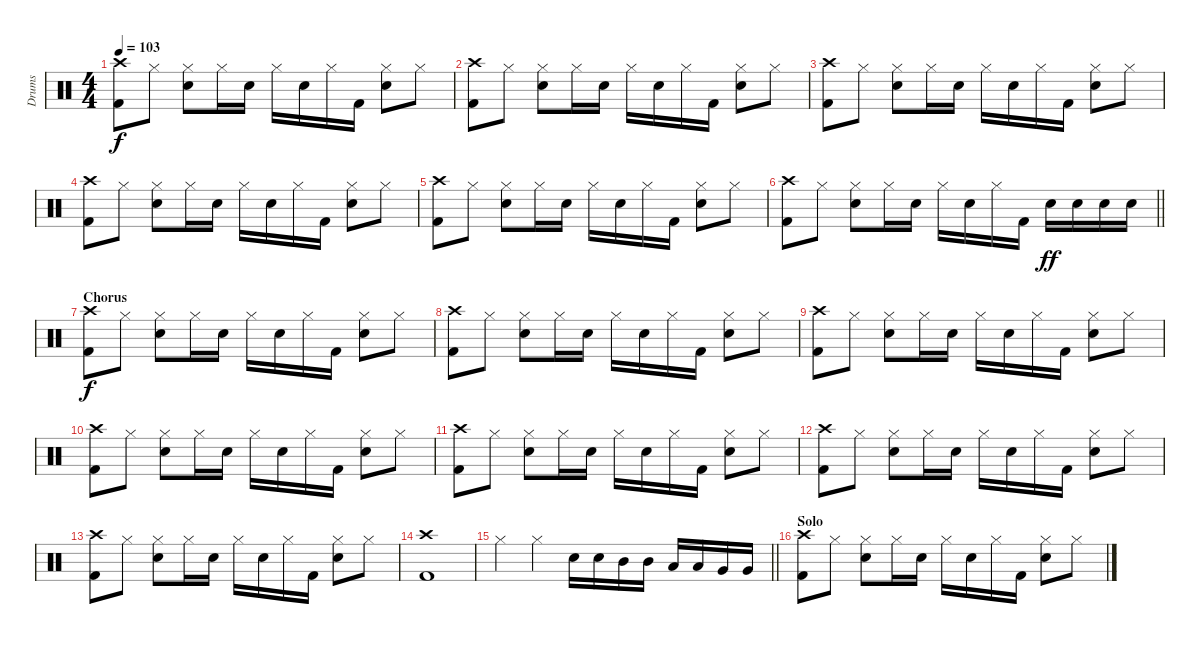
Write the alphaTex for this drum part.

\track ("Drums" "Drums") {instrument percussion}
\staff {score}
\articulation defaults
\ts (4 4)
\tempo 103
\clef neutral
\ks c
("Crash high (hit)" "Kick (hit) 2").8{dy f} "Hi-Hat (closed)".8 ("Hi-Hat (closed)" "Snare (hit) 2").8 "Hi-Hat (closed)".16 "Snare (hit) 2".16 "Hi-Hat (closed)".16 "Snare (hit) 2".16 "Hi-Hat (closed)".16 "Kick (hit) 2".16 ("Hi-Hat (closed)" "Snare (hit) 2").8 "Hi-Hat (closed)".8 |
("Crash high (hit)" "Kick (hit) 2").8 "Hi-Hat (closed)".8 ("Hi-Hat (closed)" "Snare (hit) 2").8 "Hi-Hat (closed)".16 "Snare (hit) 2".16 "Hi-Hat (closed)".16 "Snare (hit) 2".16 "Hi-Hat (closed)".16 "Kick (hit) 2".16 ("Hi-Hat (closed)" "Snare (hit) 2").8 "Hi-Hat (closed)".8 |
("Crash high (hit)" "Kick (hit) 2").8 "Hi-Hat (closed)".8 ("Hi-Hat (closed)" "Snare (hit) 2").8 "Hi-Hat (closed)".16 "Snare (hit) 2".16 "Hi-Hat (closed)".16 "Snare (hit) 2".16 "Hi-Hat (closed)".16 "Kick (hit) 2".16 ("Hi-Hat (closed)" "Snare (hit) 2").8 "Hi-Hat (closed)".8 |
("Crash high (hit)" "Kick (hit) 2").8 "Hi-Hat (closed)".8 ("Hi-Hat (closed)" "Snare (hit) 2").8 "Hi-Hat (closed)".16 "Snare (hit) 2".16 "Hi-Hat (closed)".16 "Snare (hit) 2".16 "Hi-Hat (closed)".16 "Kick (hit) 2".16 ("Hi-Hat (closed)" "Snare (hit) 2").8 "Hi-Hat (closed)".8 |
("Crash high (hit)" "Kick (hit) 2").8 "Hi-Hat (closed)".8 ("Hi-Hat (closed)" "Snare (hit) 2").8 "Hi-Hat (closed)".16 "Snare (hit) 2".16 "Hi-Hat (closed)".16 "Snare (hit) 2".16 "Hi-Hat (closed)".16 "Kick (hit) 2".16 ("Hi-Hat (closed)" "Snare (hit) 2").8 "Hi-Hat (closed)".8 |
\barLineRight lightlight
("Crash high (hit)" "Kick (hit) 2").8 "Hi-Hat (closed)".8 ("Hi-Hat (closed)" "Snare (hit) 2").8 "Hi-Hat (closed)".16 "Snare (hit) 2".16 "Hi-Hat (closed)".16 "Snare (hit) 2".16 "Hi-Hat (closed)".16 "Kick (hit) 2".16 "Snare (hit) 2".16{dy ff} "Snare (hit) 2".16 "Snare (hit) 2".16 "Snare (hit) 2".16 |
\section ("" "Chorus")
("Crash high (hit)" "Kick (hit) 2").8{dy f} "Hi-Hat (closed)".8 ("Hi-Hat (closed)" "Snare (hit) 2").8 "Hi-Hat (closed)".16 "Snare (hit) 2".16 "Hi-Hat (closed)".16 "Snare (hit) 2".16 "Hi-Hat (closed)".16 "Kick (hit) 2".16 ("Hi-Hat (closed)" "Snare (hit) 2").8 "Hi-Hat (closed)".8 |
("Crash high (hit)" "Kick (hit) 2").8 "Hi-Hat (closed)".8 ("Hi-Hat (closed)" "Snare (hit) 2").8 "Hi-Hat (closed)".16 "Snare (hit) 2".16 "Hi-Hat (closed)".16 "Snare (hit) 2".16 "Hi-Hat (closed)".16 "Kick (hit) 2".16 ("Hi-Hat (closed)" "Snare (hit) 2").8 "Hi-Hat (closed)".8 |
("Crash high (hit)" "Kick (hit) 2").8 "Hi-Hat (closed)".8 ("Hi-Hat (closed)" "Snare (hit) 2").8 "Hi-Hat (closed)".16 "Snare (hit) 2".16 "Hi-Hat (closed)".16 "Snare (hit) 2".16 "Hi-Hat (closed)".16 "Kick (hit) 2".16 ("Hi-Hat (closed)" "Snare (hit) 2").8 "Hi-Hat (closed)".8 |
("Crash high (hit)" "Kick (hit) 2").8 "Hi-Hat (closed)".8 ("Hi-Hat (closed)" "Snare (hit) 2").8 "Hi-Hat (closed)".16 "Snare (hit) 2".16 "Hi-Hat (closed)".16 "Snare (hit) 2".16 "Hi-Hat (closed)".16 "Kick (hit) 2".16 ("Hi-Hat (closed)" "Snare (hit) 2").8 "Hi-Hat (closed)".8 |
("Crash high (hit)" "Kick (hit) 2").8 "Hi-Hat (closed)".8 ("Hi-Hat (closed)" "Snare (hit) 2").8 "Hi-Hat (closed)".16 "Snare (hit) 2".16 "Hi-Hat (closed)".16 "Snare (hit) 2".16 "Hi-Hat (closed)".16 "Kick (hit) 2".16 ("Hi-Hat (closed)" "Snare (hit) 2").8 "Hi-Hat (closed)".8 |
("Crash high (hit)" "Kick (hit) 2").8 "Hi-Hat (closed)".8 ("Hi-Hat (closed)" "Snare (hit) 2").8 "Hi-Hat (closed)".16 "Snare (hit) 2".16 "Hi-Hat (closed)".16 "Snare (hit) 2".16 "Hi-Hat (closed)".16 "Kick (hit) 2".16 ("Hi-Hat (closed)" "Snare (hit) 2").8 "Hi-Hat (closed)".8 |
("Crash high (hit)" "Kick (hit) 2").8 "Hi-Hat (closed)".8 ("Hi-Hat (closed)" "Snare (hit) 2").8 "Hi-Hat (closed)".16 "Snare (hit) 2".16 "Hi-Hat (closed)".16 "Snare (hit) 2".16 "Hi-Hat (closed)".16 "Kick (hit) 2".16 ("Hi-Hat (closed)" "Snare (hit) 2").8 "Hi-Hat (closed)".8 |
("Crash high (hit)" "Kick (hit) 2").1 |
\barLineRight lightlight "Hi-Hat (closed)".4 "Hi-Hat (closed)".4 "Snare (hit) 2".16 "Snare (hit) 2".16 "Mid Tom (hit)".16 "Mid Tom (hit)".16 "Low Tom (hit)".16 "Low Tom (hit)".16 "Very Low Tom (hit)".16 "Very Low Tom (hit)".16
|
\section ("" "Solo")
("Crash high (hit)" "Kick (hit) 2").8 "Hi-Hat (closed)".8 ("Hi-Hat (closed)" "Snare (hit) 2").8 "Hi-Hat (closed)".16 "Snare (hit) 2".16 "Hi-Hat (closed)".16 "Snare (hit) 2".16 "Hi-Hat (closed)".16 "Kick (hit) 2".16 ("Hi-Hat (closed)" "Snare (hit) 2").8 "Hi-Hat (closed)".8
